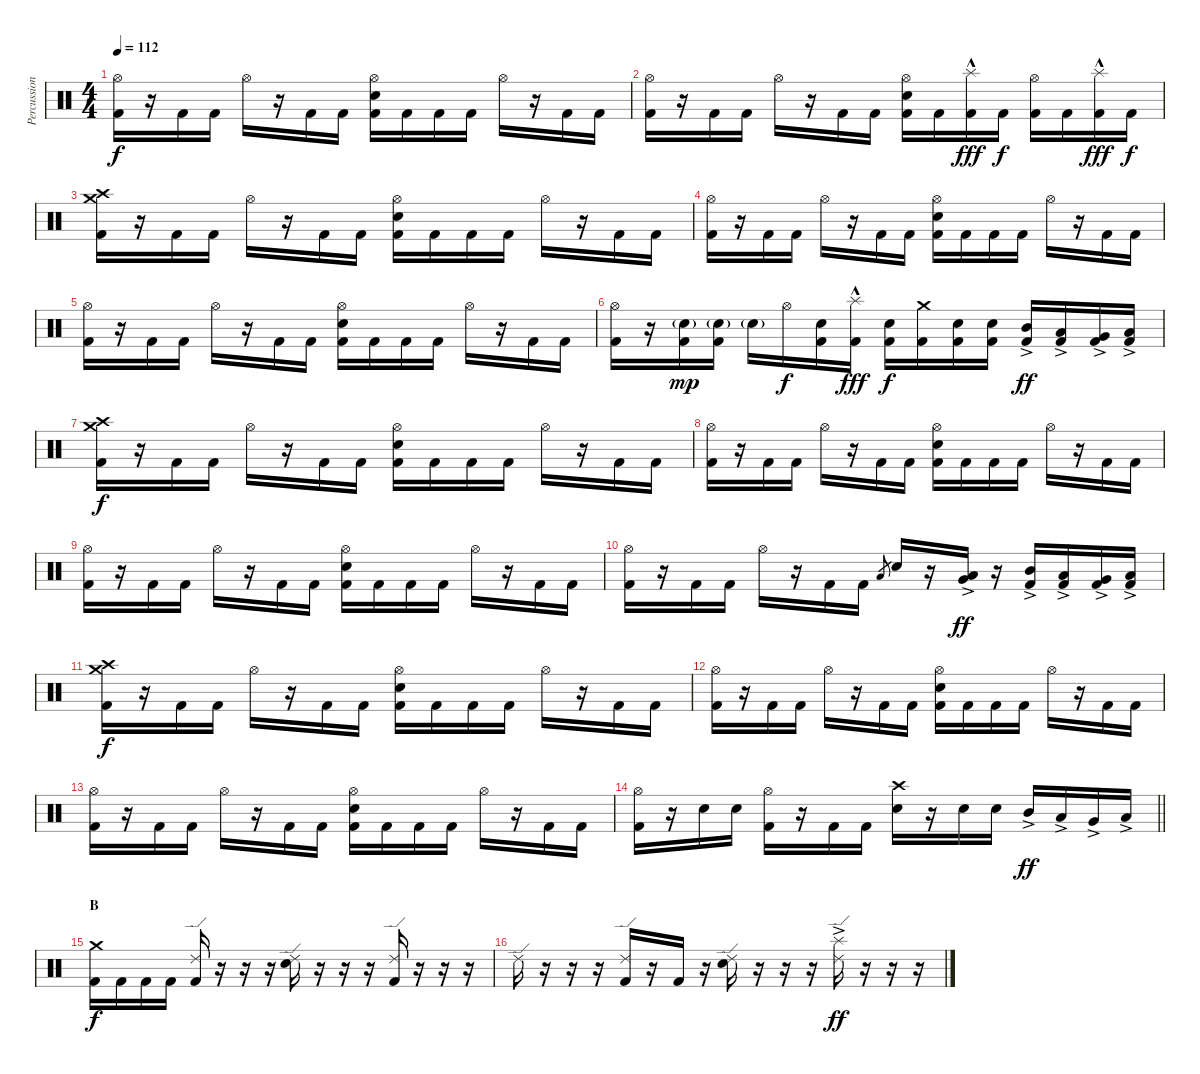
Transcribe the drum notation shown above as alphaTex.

\track ("Percussion" "Percussion") {instrument percussion}
\staff {score}
\articulation defaults
\ts (4 4)
\tempo 112
\clef neutral
\ks c
("Hi-Hat (open)" "Kick (hit) 2").16{dy f} r.16 "Kick (hit) 2".16 "Kick (hit) 2".16 "Hi-Hat (open)".16 r.16 "Kick (hit) 2".16 "Kick (hit) 2".16 ("Hi-Hat (open)" "Electric Snare (hit)" "Kick (hit) 2").16 "Kick (hit) 2".16 "Kick (hit) 2".16 "Kick (hit) 2".16 "Hi-Hat (open)".16 r.16 "Kick (hit) 2".16 "Kick (hit) 2".16 |
("Hi-Hat (open)" "Kick (hit) 2").16 r.16 "Kick (hit) 2".16 "Kick (hit) 2".16 "Hi-Hat (open)".16 r.16 "Kick (hit) 2".16 "Kick (hit) 2".16 ("Hi-Hat (open)" "Electric Snare (hit)" "Kick (hit) 2").16 "Kick (hit) 2".16 ("Splash (hit)"{hac} "Kick (hit) 2").16{dy fff} "Kick (hit) 2".16{dy f} ("Hi-Hat (open)" "Kick (hit) 2").16 "Kick (hit) 2".16 ("Splash (hit)"{hac} "Kick (hit) 2").16{dy fff} "Kick (hit) 2".16{dy f} |
("Crash medium (hit)" "Crash high (hit)" "Kick (hit) 2").16 r.16 "Kick (hit) 2".16 "Kick (hit) 2".16 "Hi-Hat (open)".16 r.16 "Kick (hit) 2".16 "Kick (hit) 2".16 ("Hi-Hat (open)" "Electric Snare (hit)" "Kick (hit) 2").16 "Kick (hit) 2".16 "Kick (hit) 2".16 "Kick (hit) 2".16 "Hi-Hat (open)".16 r.16 "Kick (hit) 2".16 "Kick (hit) 2".16 |
("Hi-Hat (open)" "Kick (hit) 2").16 r.16 "Kick (hit) 2".16 "Kick (hit) 2".16 "Hi-Hat (open)".16 r.16 "Kick (hit) 2".16 "Kick (hit) 2".16 ("Hi-Hat (open)" "Electric Snare (hit)" "Kick (hit) 2").16 "Kick (hit) 2".16 "Kick (hit) 2".16 "Kick (hit) 2".16 "Hi-Hat (open)".16 r.16 "Kick (hit) 2".16 "Kick (hit) 2".16 |
("Hi-Hat (open)" "Kick (hit) 2").16 r.16 "Kick (hit) 2".16 "Kick (hit) 2".16 "Hi-Hat (open)".16 r.16 "Kick (hit) 2".16 "Kick (hit) 2".16 ("Hi-Hat (open)" "Electric Snare (hit)" "Kick (hit) 2").16 "Kick (hit) 2".16 "Kick (hit) 2".16 "Kick (hit) 2".16 "Hi-Hat (open)".16 r.16 "Kick (hit) 2".16 "Kick (hit) 2".16 |
("Hi-Hat (open)" "Kick (hit) 2").16 r.16 ("Electric Snare (hit)"{g} "Kick (hit) 2").16{dy mp} ("Electric Snare (hit)"{g} "Kick (hit) 2").16 "Electric Snare (hit)"{g}.16 "Hi-Hat (open)".16{dy f} ("Electric Snare (hit)" "Kick (hit) 2").16 ("Splash (hit)"{hac} "Kick (hit) 2").16{dy fff} ("Electric Snare (hit)" "Kick (hit) 2").16{dy f} ("Crash medium (hit)" "Kick (hit) 2").16 ("Electric Snare (hit)" "Kick (hit) 2").16 ("Electric Snare (hit)" "Kick (hit) 2").16 ("Mid Tom (hit)"{ac} "Kick (hit) 2").16{dy ff} ("Low Tom (hit)"{ac} "Kick (hit) 2").16 ("Very Low Tom (hit)"{ac} "Kick (hit) 2").16 ("Low Floor Tom (hit)"{ac} "Kick (hit) 2").16 |
("Crash medium (hit)" "Crash high (hit)" "Kick (hit) 2").16{dy f} r.16 "Kick (hit) 2".16 "Kick (hit) 2".16 "Hi-Hat (open)".16 r.16 "Kick (hit) 2".16 "Kick (hit) 2".16 ("Hi-Hat (open)" "Electric Snare (hit)" "Kick (hit) 2").16 "Kick (hit) 2".16 "Kick (hit) 2".16 "Kick (hit) 2".16 "Hi-Hat (open)".16 r.16 "Kick (hit) 2".16 "Kick (hit) 2".16 |
("Hi-Hat (open)" "Kick (hit) 2").16 r.16 "Kick (hit) 2".16 "Kick (hit) 2".16 "Hi-Hat (open)".16 r.16 "Kick (hit) 2".16 "Kick (hit) 2".16 ("Hi-Hat (open)" "Electric Snare (hit)" "Kick (hit) 2").16 "Kick (hit) 2".16 "Kick (hit) 2".16 "Kick (hit) 2".16 "Hi-Hat (open)".16 r.16 "Kick (hit) 2".16 "Kick (hit) 2".16 |
("Hi-Hat (open)" "Kick (hit) 2").16 r.16 "Kick (hit) 2".16 "Kick (hit) 2".16 "Hi-Hat (open)".16 r.16 "Kick (hit) 2".16 "Kick (hit) 2".16 ("Hi-Hat (open)" "Electric Snare (hit)" "Kick (hit) 2").16 "Kick (hit) 2".16 "Kick (hit) 2".16 "Kick (hit) 2".16 "Hi-Hat (open)".16 r.16 "Kick (hit) 2".16 "Kick (hit) 2".16 |
("Hi-Hat (open)" "Kick (hit) 2").16 r.16 "Kick (hit) 2".16 "Kick (hit) 2".16 "Hi-Hat (open)".16 r.16 "Kick (hit) 2".16 "Kick (hit) 2".16 "Low Tom (hit)".8{gr} "Electric Snare (hit)".16 r.16 ("Low Tom (hit)"{ac} "Very Low Tom (hit)"{ac}).16{dy ff} r.16 ("Mid Tom (hit)"{ac} "Kick (hit) 2").16 ("Low Tom (hit)"{ac} "Kick (hit) 2").16 ("Very Low Tom (hit)"{ac} "Kick (hit) 2").16 ("Low Floor Tom (hit)"{ac} "Kick (hit) 2").16 |
("Crash medium (hit)" "Crash high (hit)" "Kick (hit) 2").16{dy f} r.16 "Kick (hit) 2".16 "Kick (hit) 2".16 "Hi-Hat (open)".16 r.16 "Kick (hit) 2".16 "Kick (hit) 2".16 ("Hi-Hat (open)" "Electric Snare (hit)" "Kick (hit) 2").16 "Kick (hit) 2".16 "Kick (hit) 2".16 "Kick (hit) 2".16 "Hi-Hat (open)".16 r.16 "Kick (hit) 2".16 "Kick (hit) 2".16 |
("Hi-Hat (open)" "Kick (hit) 2").16 r.16 "Kick (hit) 2".16 "Kick (hit) 2".16 "Hi-Hat (open)".16 r.16 "Kick (hit) 2".16 "Kick (hit) 2".16 ("Hi-Hat (open)" "Electric Snare (hit)" "Kick (hit) 2").16 "Kick (hit) 2".16 "Kick (hit) 2".16 "Kick (hit) 2".16 "Hi-Hat (open)".16 r.16 "Kick (hit) 2".16 "Kick (hit) 2".16 |
("Hi-Hat (open)" "Kick (hit) 2").16 r.16 "Kick (hit) 2".16 "Kick (hit) 2".16 "Hi-Hat (open)".16 r.16 "Kick (hit) 2".16 "Kick (hit) 2".16 ("Hi-Hat (open)" "Electric Snare (hit)" "Kick (hit) 2").16 "Kick (hit) 2".16 "Kick (hit) 2".16 "Kick (hit) 2".16 "Hi-Hat (open)".16 r.16 "Kick (hit) 2".16 "Kick (hit) 2".16 |
\barLineRight lightlight
("Hi-Hat (open)" "Kick (hit) 2").16 r.16 "Electric Snare (hit)".16 "Electric Snare (hit)".16 ("Hi-Hat (open)" "Kick (hit) 2").16 r.16 "Kick (hit) 2".16 "Kick (hit) 2".16 ("Crash high (hit)" "Electric Snare (hit)").16 r.16 "Electric Snare (hit)".16 "Electric Snare (hit)".16 "Mid Tom (hit)"{ac}.16{dy ff} "Low Tom (hit)"{ac}.16 "Very Low Tom (hit)"{ac}.16 "Low Floor Tom (hit)"{ac}.16 |
\section ("" "B")
("Crash medium (hit)" "Kick (hit) 2").16{dy f} "Kick (hit) 2".16 "Kick (hit) 2".16 "Kick (hit) 2".16 ("Ride (edge) 2" "Kick (hit) 2").16 r.16 r.16 r.16 ("Ride (edge) 2" "Electric Snare (hit)").16 r.16 r.16 r.16 ("Ride (edge) 2" "Kick (hit) 2").16 r.16 r.16 r.16 |
"Ride (edge) 2".16 r.16 r.16 r.16 ("Ride (edge) 2" "Kick (hit) 2").16 r.16 "Kick (hit) 2".16 r.16 ("Ride (edge) 2" "Electric Snare (hit)").16 r.16 r.16 r.16 ("Splash (hit)"{ac} "Ride (edge) 2").16{dy ff} r.16 r.16 r.16
